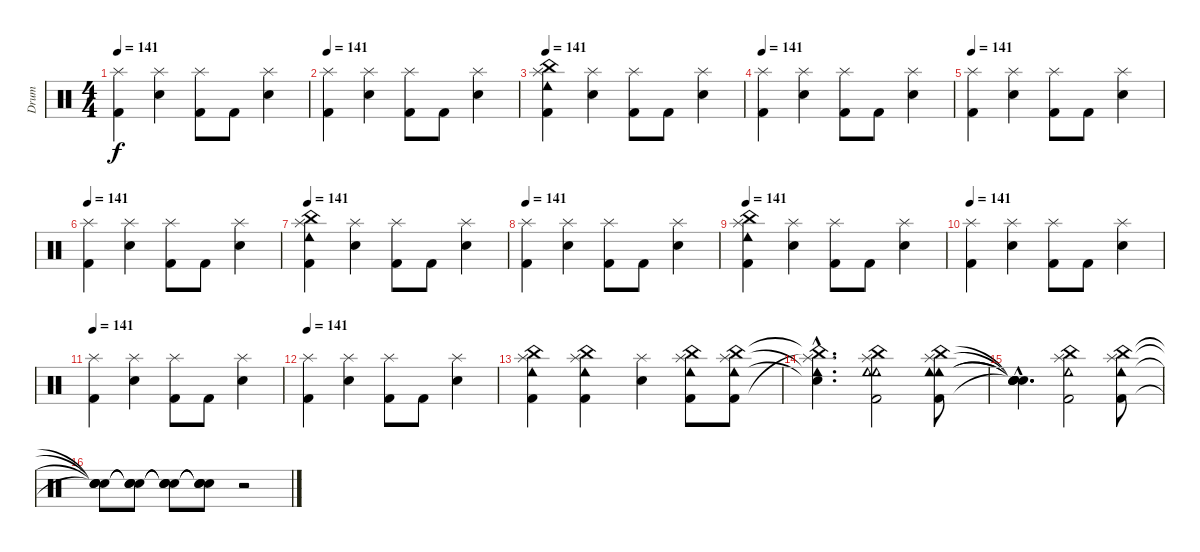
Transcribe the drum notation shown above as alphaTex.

\track ("Drum" "Drum") {instrument percussion}
\staff {score}
\articulation defaults
\ts (4 4)
\tempo 141
\clef neutral
\ks c
("Splash (hit)" "Kick (hit) 2").4{dy f} ("Splash (hit)" "Snare (hit) 2").4 ("Splash (hit)" "Kick (hit) 2").8 "Kick (hit) 2".8 ("Splash (hit)" "Snare (hit) 2").4 |
\tempo 141
("Splash (hit)" "Kick (hit) 2").4 ("Splash (hit)" "Snare (hit) 2").4 ("Splash (hit)" "Kick (hit) 2").8 "Kick (hit) 2".8 ("Splash (hit)" "Snare (hit) 2").4 |
\tempo 141
("Cowbell low (hit)" "Splash (hit)" "China (hit)" "Kick (hit) 2").4 ("Splash (hit)" "Snare (hit) 2").4 ("Splash (hit)" "Kick (hit) 2").8 "Kick (hit) 2".8 ("Splash (hit)" "Snare (hit) 2").4 |
\tempo 141
("Splash (hit)" "Kick (hit) 2").4 ("Splash (hit)" "Snare (hit) 2").4 ("Splash (hit)" "Kick (hit) 2").8 "Kick (hit) 2".8 ("Splash (hit)" "Snare (hit) 2").4 |
\tempo 141
("Splash (hit)" "Kick (hit) 2").4 ("Splash (hit)" "Snare (hit) 2").4 ("Splash (hit)" "Kick (hit) 2").8 "Kick (hit) 2".8 ("Splash (hit)" "Snare (hit) 2").4 |
\tempo 141
("Splash (hit)" "Kick (hit) 2").4 ("Splash (hit)" "Snare (hit) 2").4 ("Splash (hit)" "Kick (hit) 2").8 "Kick (hit) 2".8 ("Splash (hit)" "Snare (hit) 2").4 |
\tempo 141
("Cowbell low (hit)" "Splash (hit)" "China (hit)" "Kick (hit) 2").4 ("Splash (hit)" "Snare (hit) 2").4 ("Splash (hit)" "Kick (hit) 2").8 "Kick (hit) 2".8 ("Splash (hit)" "Snare (hit) 2").4 |
\tempo 141
("Splash (hit)" "Kick (hit) 2").4 ("Splash (hit)" "Snare (hit) 2").4 ("Splash (hit)" "Kick (hit) 2").8 "Kick (hit) 2".8 ("Splash (hit)" "Snare (hit) 2").4 |
\tempo 141
("Cowbell low (hit)" "Splash (hit)" "China (hit)" "Kick (hit) 2").4 ("Splash (hit)" "Snare (hit) 2").4 ("Splash (hit)" "Kick (hit) 2").8 "Kick (hit) 2".8 ("Splash (hit)" "Snare (hit) 2").4 |
\tempo 141
("Splash (hit)" "Kick (hit) 2").4 ("Splash (hit)" "Snare (hit) 2").4 ("Splash (hit)" "Kick (hit) 2").8 "Kick (hit) 2".8 ("Splash (hit)" "Snare (hit) 2").4 |
\tempo 141
("Splash (hit)" "Kick (hit) 2").4 ("Splash (hit)" "Snare (hit) 2").4 ("Splash (hit)" "Kick (hit) 2").8 "Kick (hit) 2".8 ("Splash (hit)" "Snare (hit) 2").4 |
\tempo 141
("Splash (hit)" "Kick (hit) 2").4 ("Splash (hit)" "Snare (hit) 2").4 ("Splash (hit)" "Kick (hit) 2").8 "Kick (hit) 2".8 ("Splash (hit)" "Snare (hit) 2").4 |
("Cowbell low (hit)" "Splash (hit)" "China (hit)" "Kick (hit) 2").4 ("Cowbell low (hit)" "Splash (hit)" "China (hit)" "Kick (hit) 2").4 ("Splash (hit)" "Snare (hit) 2").4 ("Cowbell low (hit)" "Splash (hit)" "China (hit)" "Kick (hit) 2").8 ("Cowbell low (hit)" "Splash (hit)" "China (hit)" "Kick (hit) 2").8 |
("Snare (hit)"{hac t} "Cowbell low (hit)"{hac t} "China (hit)"{hac t} "Splash (hit)"{hac t}).4{d} ("Cowbell low (hit)" "Cowbell low (hit)" "China (hit)" "Splash (hit)" "Kick (hit) 2").2 ("Cowbell low (hit)" "Cowbell low (hit)" "China (hit)" "Splash (hit)" "Kick (hit) 2").8 |
("Snare (hit)"{hac t} "Snare (hit)"{hac t} "Snare (hit)"{hac t} "Snare (hit)"{hac t} "Snare (hit)"{hac t}).4{d} ("Cowbell low (hit)" "China (hit)" "Splash (hit)" "Kick (hit) 2").2 ("Cowbell low (hit)" "Kick (hit) 2" "China (hit)" "Splash (hit)").8 |
("Snare (hit)"{t} "Snare (hit)"{t} "Snare (hit)"{t} "Snare (hit)"{t}).8 ("Snare (hit)"{t} "Snare (hit)"{t} "Snare (hit)"{t} "Snare (hit)"{t}).8 ("Snare (hit)"{t} "Snare (hit)"{t} "Snare (hit)"{t} "Snare (hit)"{t}).8 ("Snare (hit)"{t} "Snare (hit)"{t} "Snare (hit)"{t} "Snare (hit)"{t}).8 r.2
